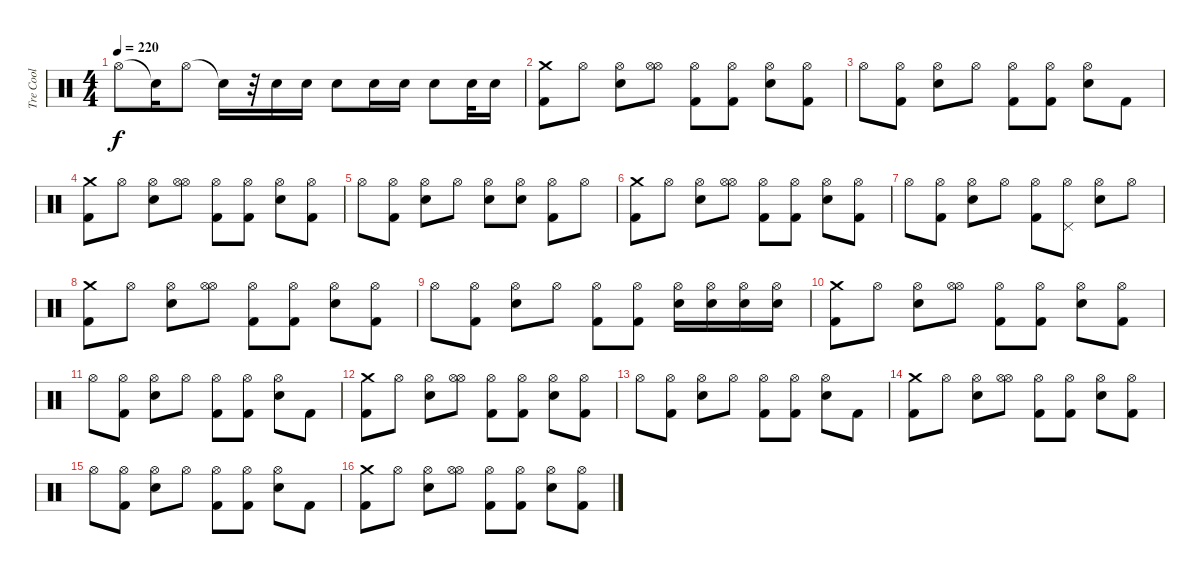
\track ("Tre Cool" "Tre Cool") {instrument percussion}
\staff {score}
\articulation defaults
\ts (4 4)
\tempo 220
\tempo 175
\tempo 220
\clef neutral
\ks c "Hi-Hat (open)".8{dy f} "Snare (hit)"{t}.16 "Hi-Hat (open)".8 "Snare (hit)"{t}.16
r.32 "Electric Snare (hit)".16 "Electric Snare (hit)".16 "Electric Snare (hit)".8 "Electric Snare (hit)".16 "Electric Snare (hit)".16 "Electric Snare (hit)".8 "Electric Snare (hit)".32 "Electric Snare (hit)".16 |
("Kick (hit) 2" "Crash medium (hit)").8 "Hi-Hat (open)".8 ("Snare (hit) 2" "Hi-Hat (open)").8 ("Hi-Hat (open)" "Hi-Hat (open)").8 ("Kick (hit) 2" "Hi-Hat (open)").8 ("Kick (hit) 2" "Hi-Hat (open)").8 ("Snare (hit) 2" "Hi-Hat (open)").8 ("Kick (hit) 2" "Hi-Hat (open)").8 |
"Hi-Hat (open)".8 ("Kick (hit) 2" "Hi-Hat (open)").8 ("Snare (hit) 2" "Hi-Hat (open)").8 "Hi-Hat (open)".8 ("Kick (hit) 2" "Hi-Hat (open)").8 ("Kick (hit) 2" "Hi-Hat (open)").8 ("Snare (hit) 2" "Hi-Hat (open)").8 "Kick (hit) 2".8 |
("Kick (hit) 2" "Crash medium (hit)").8 "Hi-Hat (open)".8 ("Snare (hit) 2" "Hi-Hat (open)").8 ("Hi-Hat (open)" "Hi-Hat (open)").8 ("Kick (hit) 2" "Hi-Hat (open)").8 ("Kick (hit) 2" "Hi-Hat (open)").8 ("Snare (hit) 2" "Hi-Hat (open)").8 ("Kick (hit) 2" "Hi-Hat (open)").8 |
"Hi-Hat (open)".8 ("Kick (hit) 2" "Hi-Hat (open)").8 ("Snare (hit) 2" "Hi-Hat (open)").8 "Hi-Hat (open)".8 ("Snare (hit) 2" "Hi-Hat (open)").8 ("Snare (hit) 2" "Hi-Hat (open)").8 ("Kick (hit) 2" "Hi-Hat (open)").8 "Hi-Hat (open)".8 |
("Kick (hit) 2" "Crash medium (hit)").8 "Hi-Hat (open)".8 ("Snare (hit) 2" "Hi-Hat (open)").8 ("Hi-Hat (open)" "Hi-Hat (open)").8 ("Kick (hit) 2" "Hi-Hat (open)").8 ("Kick (hit) 2" "Hi-Hat (open)").8 ("Snare (hit) 2" "Hi-Hat (open)").8 ("Kick (hit) 2" "Hi-Hat (open)").8 |
"Hi-Hat (open)".8 ("Kick (hit) 2" "Hi-Hat (open)").8 ("Snare (hit) 2" "Hi-Hat (open)").8 "Hi-Hat (open)".8 ("Kick (hit) 2" "Hi-Hat (open)").8 ("Pedal Hi-Hat (hit)" "Hi-Hat (open)").8 ("Snare (hit) 2" "Hi-Hat (open)").8 "Hi-Hat (open)".8 |
("Kick (hit) 2" "Crash medium (hit)").8 "Hi-Hat (open)".8 ("Snare (hit) 2" "Hi-Hat (open)").8 ("Hi-Hat (open)" "Hi-Hat (open)").8 ("Kick (hit) 2" "Hi-Hat (open)").8 ("Kick (hit) 2" "Hi-Hat (open)").8 ("Snare (hit) 2" "Hi-Hat (open)").8 ("Kick (hit) 2" "Hi-Hat (open)").8 |
"Hi-Hat (open)".8 ("Kick (hit) 2" "Hi-Hat (open)").8 ("Snare (hit) 2" "Hi-Hat (open)").8 "Hi-Hat (open)".8 ("Kick (hit) 2" "Hi-Hat (open)").8 ("Kick (hit) 2" "Hi-Hat (open)").8 ("Snare (hit) 2" "Hi-Hat (open)").16 ("Snare (hit) 2" "Hi-Hat (open)").16 ("Snare (hit) 2" "Hi-Hat (open)").16 ("Snare (hit) 2" "Hi-Hat (open)").16 |
("Kick (hit) 2" "Crash medium (hit)").8 "Hi-Hat (open)".8 ("Snare (hit) 2" "Hi-Hat (open)").8 ("Hi-Hat (open)" "Hi-Hat (open)").8 ("Kick (hit) 2" "Hi-Hat (open)").8 ("Kick (hit) 2" "Hi-Hat (open)").8 ("Snare (hit) 2" "Hi-Hat (open)").8 ("Kick (hit) 2" "Hi-Hat (open)").8 |
"Hi-Hat (open)".8 ("Kick (hit) 2" "Hi-Hat (open)").8 ("Snare (hit) 2" "Hi-Hat (open)").8 "Hi-Hat (open)".8 ("Kick (hit) 2" "Hi-Hat (open)").8 ("Kick (hit) 2" "Hi-Hat (open)").8 ("Snare (hit) 2" "Hi-Hat (open)").8 "Kick (hit) 2".8 |
("Kick (hit) 2" "Crash medium (hit)").8 "Hi-Hat (open)".8 ("Snare (hit) 2" "Hi-Hat (open)").8 ("Hi-Hat (open)" "Hi-Hat (open)").8 ("Kick (hit) 2" "Hi-Hat (open)").8 ("Kick (hit) 2" "Hi-Hat (open)").8 ("Snare (hit) 2" "Hi-Hat (open)").8 ("Kick (hit) 2" "Hi-Hat (open)").8 |
"Hi-Hat (open)".8 ("Kick (hit) 2" "Hi-Hat (open)").8 ("Snare (hit) 2" "Hi-Hat (open)").8 "Hi-Hat (open)".8 ("Kick (hit) 2" "Hi-Hat (open)").8 ("Kick (hit) 2" "Hi-Hat (open)").8 ("Snare (hit) 2" "Hi-Hat (open)").8 "Kick (hit) 2".8 |
("Kick (hit) 2" "Crash medium (hit)").8 "Hi-Hat (open)".8 ("Snare (hit) 2" "Hi-Hat (open)").8 ("Hi-Hat (open)" "Hi-Hat (open)").8 ("Kick (hit) 2" "Hi-Hat (open)").8 ("Kick (hit) 2" "Hi-Hat (open)").8 ("Snare (hit) 2" "Hi-Hat (open)").8 ("Kick (hit) 2" "Hi-Hat (open)").8 |
"Hi-Hat (open)".8 ("Kick (hit) 2" "Hi-Hat (open)").8 ("Snare (hit) 2" "Hi-Hat (open)").8 "Hi-Hat (open)".8 ("Kick (hit) 2" "Hi-Hat (open)").8 ("Kick (hit) 2" "Hi-Hat (open)").8 ("Snare (hit) 2" "Hi-Hat (open)").8 "Kick (hit) 2".8 |
("Kick (hit) 2" "Crash medium (hit)").8 "Hi-Hat (open)".8 ("Snare (hit) 2" "Hi-Hat (open)").8 ("Hi-Hat (open)" "Hi-Hat (open)").8 ("Kick (hit) 2" "Hi-Hat (open)").8 ("Kick (hit) 2" "Hi-Hat (open)").8 ("Snare (hit) 2" "Hi-Hat (open)").8 ("Kick (hit) 2" "Hi-Hat (open)").8
